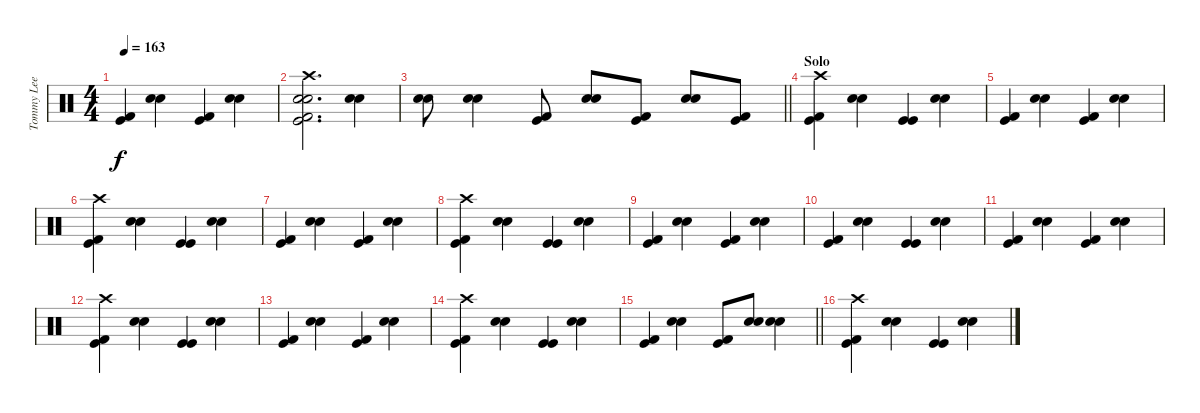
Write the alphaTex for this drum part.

\track ("Tommy Lee" "Tommy Lee") {instrument percussion}
\staff {score}
\articulation defaults
\ts (4 4)
\tempo 163
\clef neutral
\ks c
("Kick (hit) 2" "Kick (hit)").4{dy f} ("Electric Snare (hit)" "Snare (hit) 2").4 ("Kick (hit) 2" "Kick (hit)").4 ("Electric Snare (hit)" "Snare (hit) 2").4 |
("Crash high (hit)" "Electric Snare (hit)" "Snare (hit) 2" "Kick (hit) 2" "Kick (hit)").2{d} ("Electric Snare (hit)" "Snare (hit) 2").4 |
\barLineRight lightlight
("Electric Snare (hit)" "Snare (hit) 2").8 ("Electric Snare (hit)" "Snare (hit) 2").4 ("Kick (hit) 2" "Kick (hit)").8 ("Electric Snare (hit)" "Snare (hit) 2").8 ("Kick (hit) 2" "Kick (hit)").8 ("Electric Snare (hit)" "Snare (hit) 2").8 ("Kick (hit) 2" "Kick (hit)").8 |
\section ("" "Solo")
("Crash high (hit)" "Kick (hit) 2" "Kick (hit)").4 ("Electric Snare (hit)" "Snare (hit) 2").4 ("Kick (hit)" "Kick (hit)").4 ("Electric Snare (hit)" "Snare (hit) 2").4 |
("Kick (hit) 2" "Kick (hit)").4 ("Electric Snare (hit)" "Snare (hit) 2").4 ("Kick (hit) 2" "Kick (hit)").4 ("Electric Snare (hit)" "Snare (hit) 2").4 |
("Crash high (hit)" "Kick (hit) 2" "Kick (hit)").4 ("Electric Snare (hit)" "Snare (hit) 2").4 ("Kick (hit)" "Kick (hit)").4 ("Electric Snare (hit)" "Snare (hit) 2").4 |
("Kick (hit) 2" "Kick (hit)").4 ("Electric Snare (hit)" "Snare (hit) 2").4 ("Kick (hit) 2" "Kick (hit)").4 ("Electric Snare (hit)" "Snare (hit) 2").4 |
("Crash high (hit)" "Kick (hit) 2" "Kick (hit)").4 ("Electric Snare (hit)" "Snare (hit) 2").4 ("Kick (hit)" "Kick (hit)").4 ("Electric Snare (hit)" "Snare (hit) 2").4 |
("Kick (hit) 2" "Kick (hit)").4 ("Electric Snare (hit)" "Snare (hit) 2").4 ("Kick (hit) 2" "Kick (hit)").4 ("Electric Snare (hit)" "Snare (hit) 2").4 |
("Kick (hit) 2" "Kick (hit)").4 ("Electric Snare (hit)" "Snare (hit) 2").4 ("Kick (hit)" "Kick (hit)").4 ("Electric Snare (hit)" "Snare (hit) 2").4 |
("Kick (hit) 2" "Kick (hit)").4 ("Electric Snare (hit)" "Snare (hit) 2").4 ("Kick (hit) 2" "Kick (hit)").4 ("Electric Snare (hit)" "Snare (hit) 2").4 |
("Crash high (hit)" "Kick (hit) 2" "Kick (hit)").4 ("Electric Snare (hit)" "Snare (hit) 2").4 ("Kick (hit)" "Kick (hit)").4 ("Electric Snare (hit)" "Snare (hit) 2").4 |
("Kick (hit) 2" "Kick (hit)").4 ("Electric Snare (hit)" "Snare (hit) 2").4 ("Kick (hit) 2" "Kick (hit)").4 ("Electric Snare (hit)" "Snare (hit) 2").4 |
("Crash high (hit)" "Kick (hit) 2" "Kick (hit)").4 ("Electric Snare (hit)" "Snare (hit) 2").4 ("Kick (hit)" "Kick (hit)").4 ("Electric Snare (hit)" "Snare (hit) 2").4 |
\barLineRight lightlight
("Kick (hit) 2" "Kick (hit)").4 ("Electric Snare (hit)" "Snare (hit) 2").4 ("Kick (hit) 2" "Kick (hit)").8 ("Electric Snare (hit)" "Snare (hit) 2").8 ("Electric Snare (hit)" "Snare (hit) 2").4 |
("Crash high (hit)" "Kick (hit) 2" "Kick (hit)").4 ("Electric Snare (hit)" "Snare (hit) 2").4 ("Kick (hit)" "Kick (hit)").4 ("Electric Snare (hit)" "Snare (hit) 2").4
